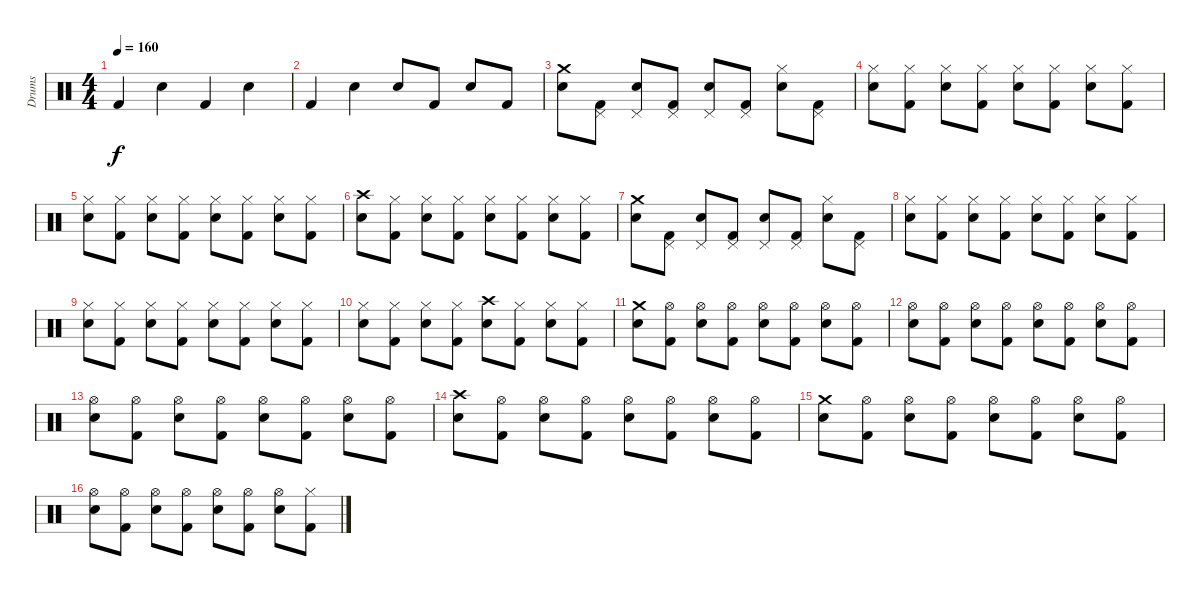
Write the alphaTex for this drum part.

\track ("Drums" "Drums") {instrument percussion}
\staff {score}
\articulation defaults
\ts (4 4)
\tempo 160
\clef neutral
\ks c "Kick (hit) 2".4{dy f} "Snare (hit) 2".4 "Kick (hit) 2".4 "Snare (hit) 2".4
|
"Kick (hit) 2".4 "Snare (hit) 2".4 "Snare (hit) 2".8 "Kick (hit) 2".8 "Snare (hit) 2".8 "Kick (hit) 2".8 |
("Crash medium (hit)" "Snare (hit) 2").8 ("Pedal Hi-Hat (hit)" "Kick (hit) 2").8 ("Pedal Hi-Hat (hit)" "Snare (hit) 2").8 ("Pedal Hi-Hat (hit)" "Kick (hit) 2").8 ("Pedal Hi-Hat (hit)" "Snare (hit) 2").8 ("Pedal Hi-Hat (hit)" "Kick (hit) 2").8 ("Hi-Hat (closed)" "Snare (hit) 2").8 ("Pedal Hi-Hat (hit)" "Kick (hit) 2").8 |
("Hi-Hat (closed)" "Snare (hit) 2").8 ("Hi-Hat (closed)" "Kick (hit) 2").8 ("Hi-Hat (closed)" "Snare (hit) 2").8 ("Hi-Hat (closed)" "Kick (hit) 2").8 ("Hi-Hat (closed)" "Snare (hit) 2").8 ("Hi-Hat (closed)" "Kick (hit) 2").8 ("Hi-Hat (closed)" "Snare (hit) 2").8 ("Hi-Hat (closed)" "Kick (hit) 2").8 |
("Hi-Hat (closed)" "Snare (hit) 2").8 ("Hi-Hat (closed)" "Kick (hit) 2").8 ("Hi-Hat (closed)" "Snare (hit) 2").8 ("Hi-Hat (closed)" "Kick (hit) 2").8 ("Hi-Hat (closed)" "Snare (hit) 2").8 ("Hi-Hat (closed)" "Kick (hit) 2").8 ("Hi-Hat (closed)" "Snare (hit) 2").8 ("Hi-Hat (closed)" "Kick (hit) 2").8 |
("Snare (hit) 2" "Crash high (hit)").8 ("Hi-Hat (closed)" "Kick (hit) 2").8 ("Hi-Hat (closed)" "Snare (hit) 2").8 ("Hi-Hat (closed)" "Kick (hit) 2").8 ("Hi-Hat (closed)" "Snare (hit) 2").8 ("Hi-Hat (closed)" "Kick (hit) 2").8 ("Hi-Hat (closed)" "Snare (hit) 2").8 ("Hi-Hat (closed)" "Kick (hit) 2").8 |
("Crash medium (hit)" "Snare (hit) 2").8 ("Pedal Hi-Hat (hit)" "Kick (hit) 2").8 ("Pedal Hi-Hat (hit)" "Snare (hit) 2").8 ("Pedal Hi-Hat (hit)" "Kick (hit) 2").8 ("Pedal Hi-Hat (hit)" "Snare (hit) 2").8 ("Pedal Hi-Hat (hit)" "Kick (hit) 2").8 ("Hi-Hat (closed)" "Snare (hit) 2").8 ("Pedal Hi-Hat (hit)" "Kick (hit) 2").8 |
("Hi-Hat (closed)" "Snare (hit) 2").8 ("Hi-Hat (closed)" "Kick (hit) 2").8 ("Hi-Hat (closed)" "Snare (hit) 2").8 ("Hi-Hat (closed)" "Kick (hit) 2").8 ("Hi-Hat (closed)" "Snare (hit) 2").8 ("Hi-Hat (closed)" "Kick (hit) 2").8 ("Hi-Hat (closed)" "Snare (hit) 2").8 ("Hi-Hat (closed)" "Kick (hit) 2").8 |
("Hi-Hat (closed)" "Snare (hit) 2").8 ("Hi-Hat (closed)" "Kick (hit) 2").8 ("Hi-Hat (closed)" "Snare (hit) 2").8 ("Hi-Hat (closed)" "Kick (hit) 2").8 ("Hi-Hat (closed)" "Snare (hit) 2").8 ("Hi-Hat (closed)" "Kick (hit) 2").8 ("Hi-Hat (closed)" "Snare (hit) 2").8 ("Hi-Hat (closed)" "Kick (hit) 2").8 |
("Hi-Hat (closed)" "Snare (hit) 2").8 ("Hi-Hat (closed)" "Kick (hit) 2").8 ("Hi-Hat (closed)" "Snare (hit) 2").8 ("Hi-Hat (closed)" "Kick (hit) 2").8 ("Crash high (hit)" "Snare (hit) 2").8 ("Hi-Hat (closed)" "Kick (hit) 2").8 ("Hi-Hat (closed)" "Snare (hit) 2").8 ("Hi-Hat (closed)" "Kick (hit) 2").8 |
("Crash medium (hit)" "Snare (hit) 2").8 ("Hi-Hat (open)" "Kick (hit) 2").8 ("Hi-Hat (open)" "Snare (hit) 2").8 ("Hi-Hat (open)" "Kick (hit) 2").8 ("Hi-Hat (open)" "Snare (hit) 2").8 ("Hi-Hat (open)" "Kick (hit) 2").8 ("Hi-Hat (open)" "Snare (hit) 2").8 ("Hi-Hat (open)" "Kick (hit) 2").8 |
("Hi-Hat (open)" "Snare (hit) 2").8 ("Hi-Hat (open)" "Kick (hit) 2").8 ("Hi-Hat (open)" "Snare (hit) 2").8 ("Hi-Hat (open)" "Kick (hit) 2").8 ("Hi-Hat (open)" "Snare (hit) 2").8 ("Hi-Hat (open)" "Kick (hit) 2").8 ("Hi-Hat (open)" "Snare (hit) 2").8 ("Hi-Hat (open)" "Kick (hit) 2").8 |
("Hi-Hat (open)" "Snare (hit) 2").8 ("Hi-Hat (open)" "Kick (hit) 2").8 ("Hi-Hat (open)" "Snare (hit) 2").8 ("Hi-Hat (open)" "Kick (hit) 2").8 ("Hi-Hat (open)" "Snare (hit) 2").8 ("Hi-Hat (open)" "Kick (hit) 2").8 ("Hi-Hat (open)" "Snare (hit) 2").8 ("Hi-Hat (open)" "Kick (hit) 2").8 |
("Snare (hit) 2" "Crash high (hit)").8 ("Hi-Hat (open)" "Kick (hit) 2").8 ("Hi-Hat (open)" "Snare (hit) 2").8 ("Hi-Hat (open)" "Kick (hit) 2").8 ("Hi-Hat (open)" "Snare (hit) 2").8 ("Hi-Hat (open)" "Kick (hit) 2").8 ("Hi-Hat (open)" "Snare (hit) 2").8 ("Hi-Hat (open)" "Kick (hit) 2").8 |
("Crash medium (hit)" "Snare (hit) 2").8 ("Hi-Hat (open)" "Kick (hit) 2").8 ("Hi-Hat (open)" "Snare (hit) 2").8 ("Hi-Hat (open)" "Kick (hit) 2").8 ("Hi-Hat (open)" "Snare (hit) 2").8 ("Hi-Hat (open)" "Kick (hit) 2").8 ("Hi-Hat (open)" "Snare (hit) 2").8 ("Hi-Hat (open)" "Kick (hit) 2").8 |
("Hi-Hat (open)" "Snare (hit) 2").8 ("Hi-Hat (open)" "Kick (hit) 2").8 ("Hi-Hat (open)" "Snare (hit) 2").8 ("Hi-Hat (open)" "Kick (hit) 2").8 ("Hi-Hat (open)" "Snare (hit) 2").8 ("Hi-Hat (open)" "Kick (hit) 2").8 ("Hi-Hat (open)" "Snare (hit) 2").8 ("Hi-Hat (closed)" "Kick (hit) 2").8
